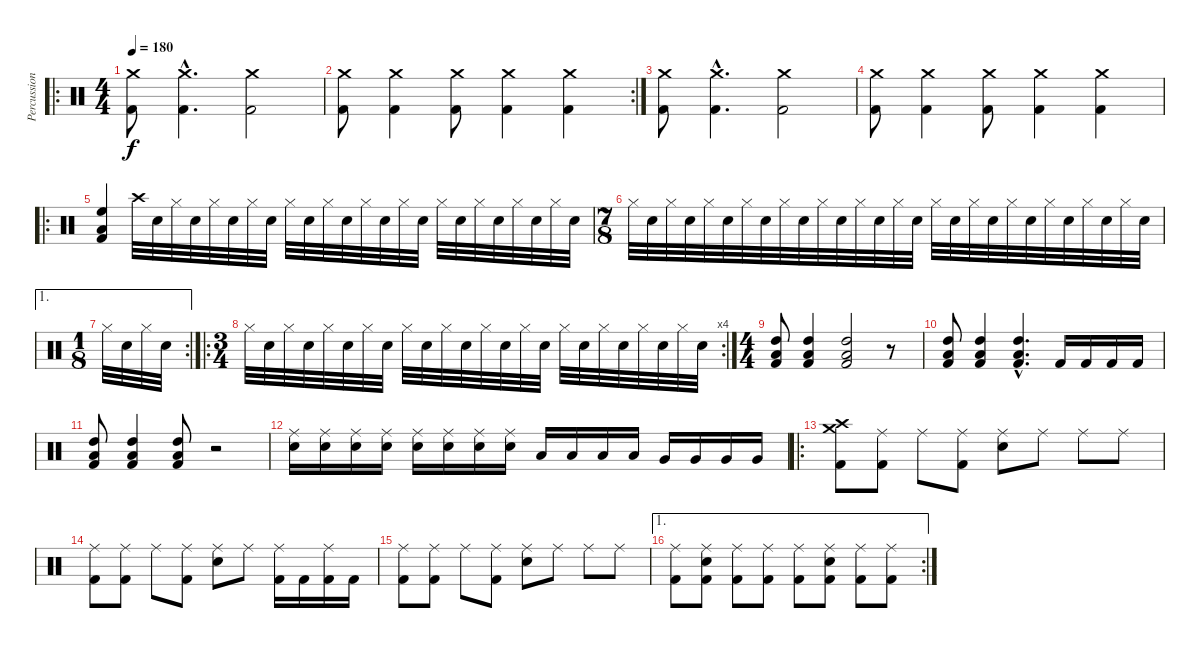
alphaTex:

\track ("Percussion" "Percussion") {instrument percussion}
\staff {score}
\articulation defaults
\ro
\ts (4 4)
\tempo 180
\clef neutral
\ks c
("Crash medium (hit)" "Kick (hit) 2").8{dy f} ("Crash medium (hit)"{hac} "Kick (hit) 2"{hac}).4{d} ("Crash medium (hit)" "Kick (hit) 2").2 |
\rc 2
("Crash medium (hit)" "Kick (hit) 2").8 ("Crash medium (hit)" "Kick (hit) 2").4 ("Crash medium (hit)" "Kick (hit) 2").8 ("Crash medium (hit)" "Kick (hit) 2").4 ("Crash medium (hit)" "Kick (hit) 2").4 |
("Crash medium (hit)" "Kick (hit) 2").8 ("Crash medium (hit)"{hac} "Kick (hit) 2"{hac}).4{d} ("Crash medium (hit)" "Kick (hit) 2").2 |
("Crash medium (hit)" "Kick (hit) 2").8 ("Crash medium (hit)" "Kick (hit) 2").4 ("Crash medium (hit)" "Kick (hit) 2").8 ("Crash medium (hit)" "Kick (hit) 2").4 ("Crash medium (hit)" "Kick (hit) 2").4 |
\ro
("High Floor Tom (hit)" "Low Tom (hit)" "Kick (hit) 2").4 "Crash high (hit)".32 "Snare (hit) 2".32 "Hi-Hat (closed)".32 "Snare (hit) 2".32 "Hi-Hat (closed)".32 "Snare (hit) 2".32 "Hi-Hat (closed)".32 "Snare (hit) 2".32 "Hi-Hat (closed)".32 "Snare (hit) 2".32 "Hi-Hat (closed)".32 "Snare (hit) 2".32 "Hi-Hat (closed)".32 "Snare (hit) 2".32 "Hi-Hat (closed)".32 "Snare (hit) 2".32 "Hi-Hat (closed)".32 "Snare (hit) 2".32 "Hi-Hat (closed)".32 "Snare (hit) 2".32 "Hi-Hat (closed)".32 "Snare (hit) 2".32 "Hi-Hat (closed)".32 "Snare (hit) 2".32 |
\ts (7 8)
"Hi-Hat (closed)".32 "Snare (hit) 2".32 "Hi-Hat (closed)".32 "Snare (hit) 2".32 "Hi-Hat (closed)".32 "Snare (hit) 2".32 "Hi-Hat (closed)".32 "Snare (hit) 2".32 "Hi-Hat (closed)".32 "Snare (hit) 2".32 "Hi-Hat (closed)".32 "Snare (hit) 2".32 "Hi-Hat (closed)".32 "Snare (hit) 2".32 "Hi-Hat (closed)".32 "Snare (hit) 2".32 "Hi-Hat (closed)".32 "Snare (hit) 2".32 "Hi-Hat (closed)".32 "Snare (hit) 2".32 "Hi-Hat (closed)".32 "Snare (hit) 2".32 "Hi-Hat (closed)".32 "Snare (hit) 2".32 "Hi-Hat (closed)".32 "Snare (hit) 2".32 "Hi-Hat (closed)".32 "Snare (hit) 2".32 |
\ae 1
\rc 2
\ts (1 8)
"Hi-Hat (closed)".32 "Snare (hit) 2".32 "Hi-Hat (closed)".32 "Snare (hit) 2".32 |
\ro
\rc 4
\ts (3 4)
"Hi-Hat (closed)".32 "Snare (hit) 2".32 "Hi-Hat (closed)".32 "Snare (hit) 2".32 "Hi-Hat (closed)".32 "Snare (hit) 2".32 "Hi-Hat (closed)".32 "Snare (hit) 2".32 "Hi-Hat (closed)".32 "Snare (hit) 2".32 "Hi-Hat (closed)".32 "Snare (hit) 2".32 "Hi-Hat (closed)".32 "Snare (hit) 2".32 "Hi-Hat (closed)".32 "Snare (hit) 2".32 "Hi-Hat (closed)".32 "Snare (hit) 2".32 "Hi-Hat (closed)".32 "Snare (hit) 2".32 "Hi-Hat (closed)".32 "Snare (hit) 2".32 "Hi-Hat (closed)".32 "Snare (hit) 2".32 |
\ts (4 4)
("High Tom (hit)" "Low Tom (hit)" "Kick (hit) 2").8 ("High Tom (hit)" "Low Tom (hit)" "Kick (hit) 2").4 ("High Tom (hit)" "Low Tom (hit)" "Kick (hit) 2").2 r.8 |
("High Tom (hit)" "Low Tom (hit)" "Kick (hit) 2").8 ("High Tom (hit)" "Low Tom (hit)" "Kick (hit) 2").4 ("High Tom (hit)"{hac} "Low Tom (hit)"{hac} "Kick (hit) 2"{hac}).4{d} "Kick (hit) 2".16 "Kick (hit) 2".16 "Kick (hit) 2".16 "Kick (hit) 2".16 |
("High Tom (hit)" "Low Tom (hit)" "Kick (hit) 2").8 ("High Tom (hit)" "Low Tom (hit)" "Kick (hit) 2").4 ("High Tom (hit)" "Low Tom (hit)" "Kick (hit) 2").8 r.2 |
("Ride (middle)" "Snare (hit) 2").16 ("Ride (middle)" "Snare (hit) 2").16 ("Ride (middle)" "Snare (hit) 2").16 ("Ride (middle)" "Snare (hit) 2").16 ("Ride (middle)" "Snare (hit) 2").16 ("Ride (middle)" "Snare (hit) 2").16 ("Ride (middle)" "Snare (hit) 2").16 ("Ride (middle)" "Snare (hit) 2").16 "Low Tom (hit)".16 "Low Tom (hit)".16 "Low Tom (hit)".16 "Low Tom (hit)".16 "Very Low Tom (hit)".16 "Very Low Tom (hit)".16 "Very Low Tom (hit)".16 "Very Low Tom (hit)".16 |
\ro
("Crash high (hit)" "Crash medium (hit)" "Kick (hit) 2").8 ("Ride (middle)" "Kick (hit) 2").8 "Ride (middle)".8 ("Ride (middle)" "Kick (hit) 2").8 ("Ride (middle)" "Snare (hit) 2").8 "Ride (middle)".8 "Ride (middle)".8 "Ride (middle)".8 |
("Ride (middle)" "Kick (hit) 2").8 ("Ride (middle)" "Kick (hit) 2").8 "Ride (middle)".8 ("Ride (middle)" "Kick (hit) 2").8 ("Ride (middle)" "Snare (hit) 2").8 "Ride (middle)".8 ("Ride (middle)" "Kick (hit) 2").16 "Kick (hit) 2".16 ("Ride (middle)" "Kick (hit) 2").16 "Kick (hit) 2".16 |
("Ride (middle)" "Kick (hit) 2").8 ("Ride (middle)" "Kick (hit) 2").8 "Ride (middle)".8 ("Ride (middle)" "Kick (hit) 2").8 ("Ride (middle)" "Snare (hit) 2").8 "Ride (middle)".8 "Ride (middle)".8 "Ride (middle)".8 |
\ae 1
\rc 2
("Ride (middle)" "Kick (hit) 2").8 ("Ride (middle)" "Snare (hit) 2" "Kick (hit) 2").8 ("Ride (middle)" "Kick (hit) 2").8 ("Ride (middle)" "Kick (hit) 2").8 ("Ride (middle)" "Kick (hit) 2").8 ("Ride (middle)" "Snare (hit) 2" "Kick (hit) 2").8 ("Ride (middle)" "Kick (hit) 2").8 ("Ride (middle)" "Kick (hit) 2").8
